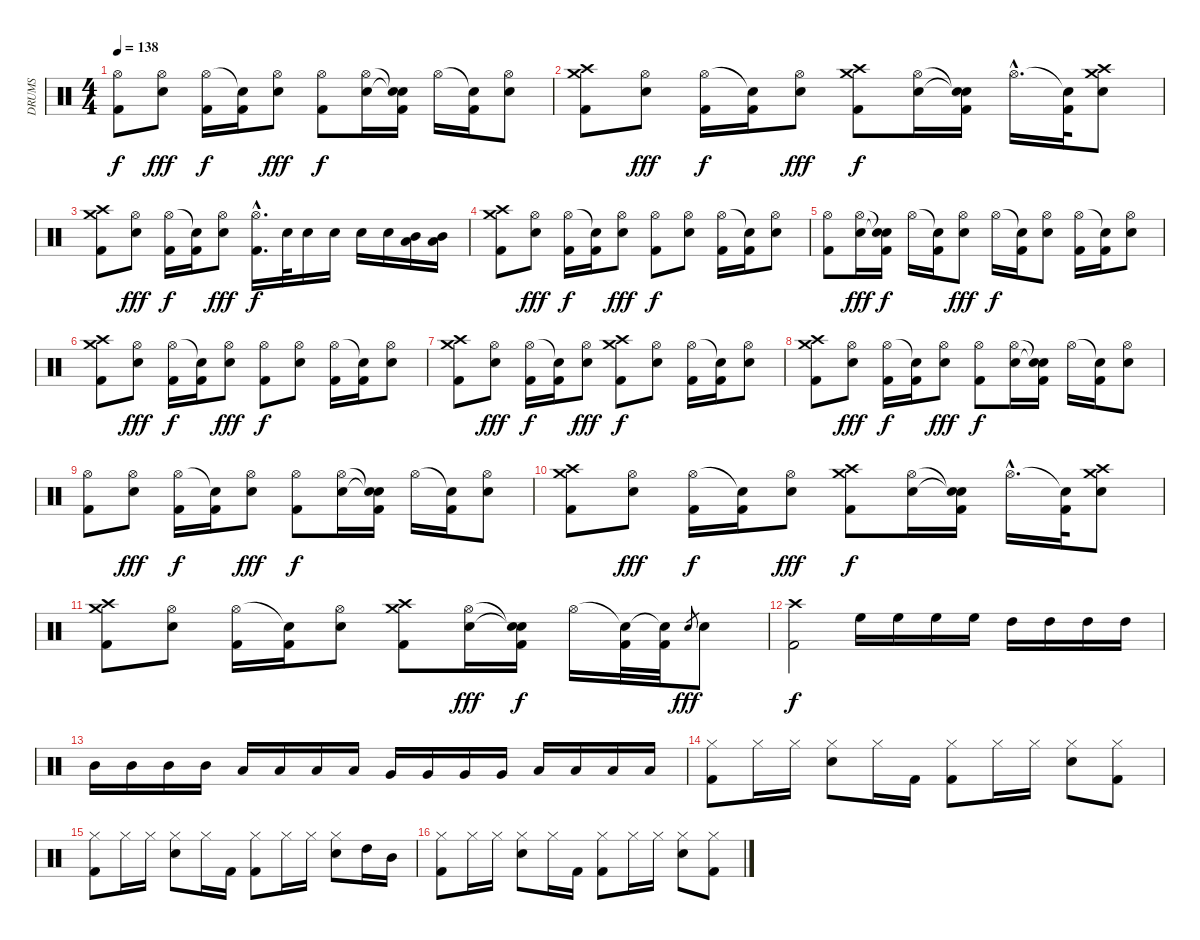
\track ("DRUMS" "DRUMS") {instrument percussion}
\staff {score}
\articulation defaults
\ts (4 4)
\tempo 138
\clef neutral
\ks c
("Hi-Hat (open)" "Kick (hit) 2").8{dy f} ("Hi-Hat (open)" "Electric Snare (hit)").8{dy fff} ("Hi-Hat (open)" "Kick (hit) 2").16{dy f} ("Snare (hit)"{t} "Kick (hit) 2").16 ("Hi-Hat (open)" "Electric Snare (hit)").8{dy fff} ("Hi-Hat (open)" "Kick (hit) 2").8{dy f} ("Hi-Hat (open)" "Electric Snare (hit)").16 ("Snare (hit)"{t} "Snare (hit)"{t} "Kick (hit) 2").16 "Hi-Hat (open)".16 ("Snare (hit)"{t} "Kick (hit) 2").16 ("Hi-Hat (open)" "Electric Snare (hit)").8 |
("Crash medium (hit)" "Crash high (hit)" "Kick (hit) 2").8 ("Hi-Hat (open)" "Electric Snare (hit)").8{dy fff} ("Hi-Hat (open)" "Kick (hit) 2").16{dy f} ("Snare (hit)"{t} "Kick (hit) 2").16 ("Hi-Hat (open)" "Electric Snare (hit)").8{dy fff} ("Crash high (hit)" "Crash medium (hit)" "Kick (hit) 2").8{dy f} ("Hi-Hat (open)" "Electric Snare (hit)").16 ("Snare (hit)"{t} "Snare (hit)"{t} "Kick (hit) 2").16 "Hi-Hat (open)"{hac}.16{d} ("Snare (hit)"{t} "Kick (hit) 2").32 ("Crash high (hit)" "Crash medium (hit)" "Electric Snare (hit)").8 |
("Crash high (hit)" "Crash medium (hit)" "Kick (hit) 2").8 ("Hi-Hat (open)" "Electric Snare (hit)").8{dy fff} ("Hi-Hat (open)" "Kick (hit) 2").16{dy f} ("Snare (hit)"{t} "Kick (hit) 2").16 ("Hi-Hat (open)" "Electric Snare (hit)").8{dy fff} ("Hi-Hat (open)"{hac} "Kick (hit) 2"{hac}).16{d dy f} "Electric Snare (hit)".32 "Electric Snare (hit)".16 "Electric Snare (hit)".16 "Electric Snare (hit)".16 "Electric Snare (hit)".16 ("Low Tom (hit)" "Mid Tom (hit)").16 ("Low Tom (hit)" "Mid Tom (hit)").16 |
("Crash medium (hit)" "Crash high (hit)" "Kick (hit) 2").8 ("Hi-Hat (open)" "Electric Snare (hit)").8{dy fff} ("Hi-Hat (open)" "Kick (hit) 2").16{dy f} ("Snare (hit)"{t} "Kick (hit) 2").16 ("Hi-Hat (open)" "Electric Snare (hit)").8{dy fff} ("Hi-Hat (open)" "Kick (hit) 2").8{dy f} ("Hi-Hat (open)" "Electric Snare (hit)").8 ("Hi-Hat (open)" "Kick (hit) 2").16 ("Snare (hit)"{t} "Kick (hit) 2").16 ("Hi-Hat (open)" "Electric Snare (hit)").8 |
("Hi-Hat (open)" "Kick (hit) 2").8 ("Hi-Hat (open)" "Electric Snare (hit)").16{dy fff} ("Snare (hit)"{t} "Snare (hit)"{t} "Kick (hit) 2").16{dy f} "Hi-Hat (open)".16 ("Snare (hit)"{t} "Kick (hit) 2").16 ("Hi-Hat (open)" "Electric Snare (hit)").8{dy fff} "Hi-Hat (open)".16{dy f} ("Snare (hit)"{t} "Kick (hit) 2").16 ("Hi-Hat (open)" "Electric Snare (hit)").8 ("Hi-Hat (open)" "Kick (hit) 2").16 ("Snare (hit)"{t} "Kick (hit) 2").16 ("Hi-Hat (open)" "Electric Snare (hit)").8 |
("Crash high (hit)" "Crash medium (hit)" "Kick (hit) 2").8 ("Hi-Hat (open)" "Electric Snare (hit)").8{dy fff} ("Hi-Hat (open)" "Kick (hit) 2").16{dy f} ("Snare (hit)"{t} "Kick (hit) 2").16 ("Hi-Hat (open)" "Electric Snare (hit)").8{dy fff} ("Hi-Hat (open)" "Kick (hit) 2").8{dy f} ("Hi-Hat (open)" "Electric Snare (hit)").8 ("Hi-Hat (open)" "Kick (hit) 2").16 ("Snare (hit)"{t} "Kick (hit) 2").16 ("Hi-Hat (open)" "Electric Snare (hit)").8 |
("Crash high (hit)" "Crash medium (hit)" "Kick (hit) 2").8 ("Hi-Hat (open)" "Electric Snare (hit)").8{dy fff} ("Hi-Hat (open)" "Kick (hit) 2").16{dy f} ("Snare (hit)"{t} "Kick (hit) 2").16 ("Hi-Hat (open)" "Electric Snare (hit)").8{dy fff} ("Crash high (hit)" "Crash medium (hit)" "Kick (hit) 2").8{dy f} ("Hi-Hat (open)" "Electric Snare (hit)").8 ("Hi-Hat (open)" "Kick (hit) 2").16 ("Snare (hit)"{t} "Kick (hit) 2").16 ("Hi-Hat (open)" "Electric Snare (hit)").8 |
("Crash high (hit)" "Crash medium (hit)" "Kick (hit) 2").8 ("Hi-Hat (open)" "Electric Snare (hit)").8{dy fff} ("Hi-Hat (open)" "Kick (hit) 2").16{dy f} ("Snare (hit)"{t} "Kick (hit) 2").16 ("Hi-Hat (open)" "Electric Snare (hit)").8{dy fff} ("Hi-Hat (open)" "Kick (hit) 2").8{dy f} ("Hi-Hat (open)" "Electric Snare (hit)").16 ("Snare (hit)"{t} "Snare (hit)"{t} "Kick (hit) 2").16 "Hi-Hat (open)".16 ("Snare (hit)"{t} "Kick (hit) 2").16 ("Hi-Hat (open)" "Electric Snare (hit)").8 |
("Hi-Hat (open)" "Kick (hit) 2").8 ("Hi-Hat (open)" "Electric Snare (hit)").8{dy fff} ("Hi-Hat (open)" "Kick (hit) 2").16{dy f} ("Snare (hit)"{t} "Kick (hit) 2").16 ("Hi-Hat (open)" "Electric Snare (hit)").8{dy fff} ("Hi-Hat (open)" "Kick (hit) 2").8{dy f} ("Hi-Hat (open)" "Electric Snare (hit)").16 ("Snare (hit)"{t} "Snare (hit)"{t} "Kick (hit) 2").16 "Hi-Hat (open)".16 ("Snare (hit)"{t} "Kick (hit) 2").16 ("Hi-Hat (open)" "Electric Snare (hit)").8 |
("Crash medium (hit)" "Crash high (hit)" "Kick (hit) 2").8 ("Hi-Hat (open)" "Electric Snare (hit)").8{dy fff} ("Hi-Hat (open)" "Kick (hit) 2").16{dy f} ("Snare (hit)"{t} "Kick (hit) 2").16 ("Hi-Hat (open)" "Electric Snare (hit)").8{dy fff} ("Crash high (hit)" "Crash medium (hit)" "Kick (hit) 2").8{dy f} ("Hi-Hat (open)" "Electric Snare (hit)").16 ("Snare (hit)"{t} "Snare (hit)"{t} "Kick (hit) 2").16 "Hi-Hat (open)"{hac}.16{d} ("Snare (hit)"{t} "Kick (hit) 2").32 ("Crash high (hit)" "Crash medium (hit)" "Electric Snare (hit)").8 |
("Crash high (hit)" "Crash medium (hit)" "Kick (hit) 2").8 ("Hi-Hat (open)" "Electric Snare (hit)").8 ("Hi-Hat (open)" "Kick (hit) 2").16 ("Snare (hit)"{t} "Kick (hit) 2").16 ("Hi-Hat (open)" "Electric Snare (hit)").8 ("Crash high (hit)" "Crash medium (hit)" "Kick (hit) 2").8 ("Hi-Hat (open)" "Electric Snare (hit)").16{dy fff} ("Snare (hit)"{t} "Snare (hit)"{t} "Kick (hit) 2").16{dy f} "Hi-Hat (open)".16 ("Snare (hit)"{t} "Kick (hit) 2").32 ("Snare (hit)"{t} "Kick (hit) 2").32 "Electric Snare (hit)".8{gr dy fff} "Electric Snare (hit)".8 |
("Crash high (hit)" "Kick (hit) 2").2{dy f} "High Floor Tom (hit)".16 "High Floor Tom (hit)".16 "High Floor Tom (hit)".16 "High Floor Tom (hit)".16 "High Tom (hit)".16 "High Tom (hit)".16 "High Tom (hit)".16 "High Tom (hit)".16 |
"Mid Tom (hit)".16 "Mid Tom (hit)".16 "Mid Tom (hit)".16 "Mid Tom (hit)".16 "Low Tom (hit)".16 "Low Tom (hit)".16 "Low Tom (hit)".16 "Low Tom (hit)".16 "Very Low Tom (hit)".16 "Very Low Tom (hit)".16 "Very Low Tom (hit)".16 "Very Low Tom (hit)".16 "Low Floor Tom (hit)".16 "Low Floor Tom (hit)".16 "Low Floor Tom (hit)".16 "Low Floor Tom (hit)".16 |
("Hi-Hat (closed)" "Kick (hit) 2").8 "Hi-Hat (closed)".16 "Hi-Hat (closed)".16 ("Hi-Hat (closed)" "Electric Snare (hit)").8 "Hi-Hat (closed)".16 "Kick (hit) 2".16 ("Hi-Hat (closed)" "Kick (hit) 2").8 "Hi-Hat (closed)".16 "Hi-Hat (closed)".16 ("Hi-Hat (closed)" "Electric Snare (hit)").8 ("Hi-Hat (closed)" "Kick (hit) 2").8 |
("Hi-Hat (closed)" "Kick (hit) 2").8 "Hi-Hat (closed)".16 "Hi-Hat (closed)".16 ("Hi-Hat (closed)" "Electric Snare (hit)").8 "Hi-Hat (closed)".16 "Kick (hit) 2".16 ("Hi-Hat (closed)" "Kick (hit) 2").8 "Hi-Hat (closed)".16 "Hi-Hat (closed)".16 ("Hi-Hat (closed)" "Electric Snare (hit)").8 "High Tom (hit)".16 "Mid Tom (hit)".16 |
("Hi-Hat (closed)" "Kick (hit) 2").8 "Hi-Hat (closed)".16 "Hi-Hat (closed)".16 ("Hi-Hat (closed)" "Electric Snare (hit)").8 "Hi-Hat (closed)".16 "Kick (hit) 2".16 ("Hi-Hat (closed)" "Kick (hit) 2").8 "Hi-Hat (closed)".16 "Hi-Hat (closed)".16 ("Hi-Hat (closed)" "Electric Snare (hit)").8 ("Hi-Hat (closed)" "Kick (hit) 2").8
